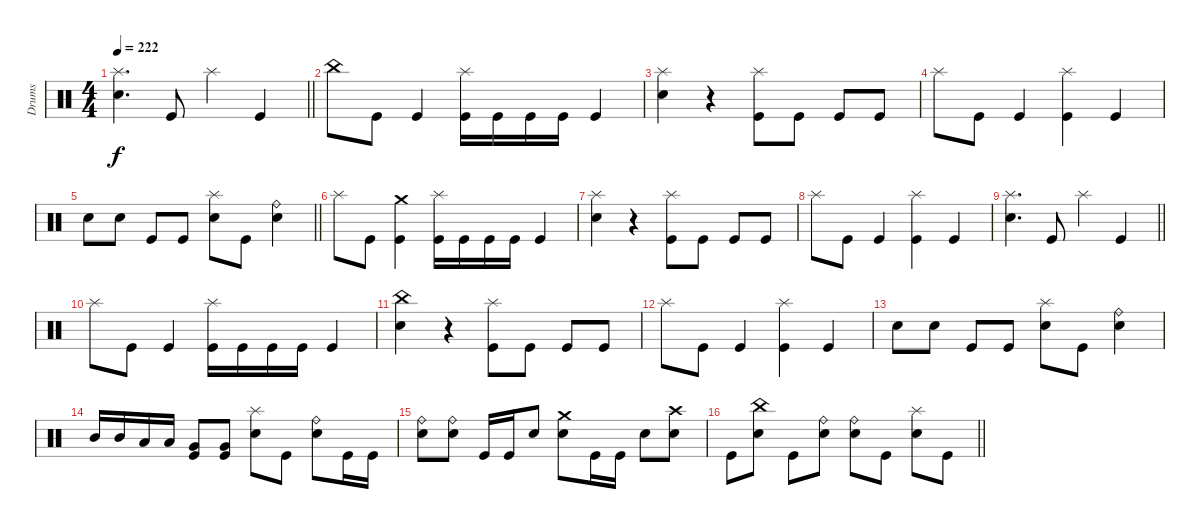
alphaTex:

\track ("Drums" "Drums") {instrument percussion}
\staff
\articulation defaults
\ts (4 4)
\tempo 222
\clef neutral
\barLineRight lightlight
\ks c
("Splash (hit)" "Electric Snare (hit)").4{d dy f} "Kick (hit)".8 "Splash (hit)".4 "Kick (hit)".4 |
"China (hit)".8 "Kick (hit)".8 "Kick (hit)".4 ("Splash (hit)" "Kick (hit)").16 "Kick (hit)".16 "Kick (hit)".16 "Kick (hit)".16 "Kick (hit)".4 |
("Splash (hit)" "Electric Snare (hit)").4 r.4 ("Splash (hit)" "Kick (hit)").8 "Kick (hit)".8 "Kick (hit)".8 "Kick (hit)".8 |
"Splash (hit)".8 "Kick (hit)".8 "Kick (hit)".4 ("Splash (hit)" "Kick (hit)").4 "Kick (hit)".4 |
\barLineRight lightlight "Electric Snare (hit)".8 "Electric Snare (hit)".8 "Kick (hit)".8 "Kick (hit)".8
("Splash (hit)" "Electric Snare (hit)").8 "Kick (hit)".8 ("Ride (bell)" "Electric Snare (hit)").4 |
"Splash (hit)".8 "Kick (hit)".8 ("Crash medium (hit)" "Kick (hit)").4 ("Splash (hit)" "Kick (hit)").16 "Kick (hit)".16 "Kick (hit)".16 "Kick (hit)".16 "Kick (hit)".4 |
("Splash (hit)" "Electric Snare (hit)").4 r.4 ("Splash (hit)" "Kick (hit)").8 "Kick (hit)".8 "Kick (hit)".8 "Kick (hit)".8 |
"Splash (hit)".8 "Kick (hit)".8 "Kick (hit)".4 ("Splash (hit)" "Kick (hit)").4 "Kick (hit)".4 |
\barLineRight lightlight
("Splash (hit)" "Electric Snare (hit)").4{d} "Kick (hit)".8 "Splash (hit)".4 "Kick (hit)".4 |
"Splash (hit)".8 "Kick (hit)".8 "Kick (hit)".4 ("Splash (hit)" "Kick (hit)").16 "Kick (hit)".16 "Kick (hit)".16 "Kick (hit)".16 "Kick (hit)".4 |
("China (hit)" "Electric Snare (hit)").4 r.4 ("Splash (hit)" "Kick (hit)").8 "Kick (hit)".8 "Kick (hit)".8 "Kick (hit)".8 |
"Splash (hit)".8 "Kick (hit)".8 "Kick (hit)".4 ("Splash (hit)" "Kick (hit)").4 "Kick (hit)".4 |
"Electric Snare (hit)".8 "Electric Snare (hit)".8 "Kick (hit)".8 "Kick (hit)".8 ("Splash (hit)" "Electric Snare (hit)").8 "Kick (hit)".8 ("Ride (bell)" "Electric Snare (hit)").4 |
"Mid Tom (hit)".16 "Mid Tom (hit)".16 "Low Tom (hit)".16 "Low Tom (hit)".16 ("Very Low Tom (hit)" "Kick (hit)").8 ("Very Low Tom (hit)" "Kick (hit)").8 ("Splash (hit)" "Electric Snare (hit)").8 "Kick (hit)".8 ("Ride (bell)" "Electric Snare (hit)").8 "Kick (hit)".16 "Kick (hit)".16 |
("Ride (bell)" "Electric Snare (hit)").8 ("Ride (bell)" "Electric Snare (hit)").8 "Kick (hit)".16 "Kick (hit)".16 "Electric Snare (hit)".8 ("Crash medium (hit)" "Electric Snare (hit)").8 "Kick (hit)".16 "Kick (hit)".16 "Electric Snare (hit)".8 ("Crash high (hit)" "Electric Snare (hit)").8 |
\barLineRight lightlight "Kick (hit)".8
("China (hit)" "Electric Snare (hit)").8 "Kick (hit)".8 ("Ride (bell)" "Electric Snare (hit)").8 ("Ride (bell)" "Electric Snare (hit)").8 "Kick (hit)".8 ("Splash (hit)" "Electric Snare (hit)").8 "Kick (hit)".8
